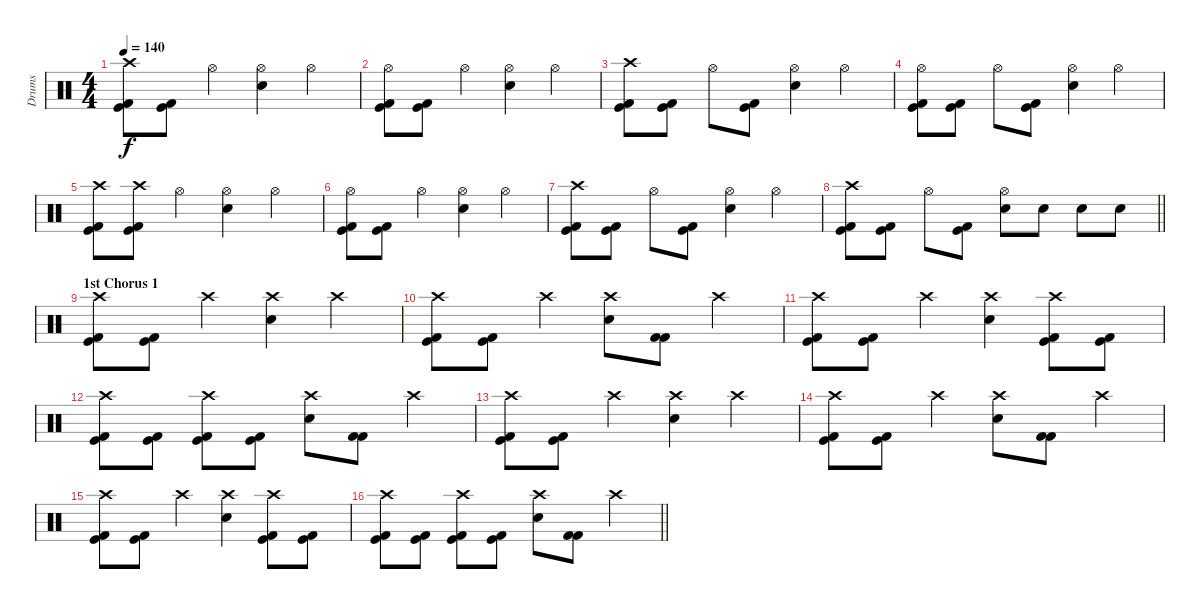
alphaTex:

\track ("Drums" "Drums") {instrument percussion}
\staff {score}
\articulation defaults
\ts (4 4)
\tempo 140
\clef neutral
\ks c
("Kick (hit)" "Kick (hit) 2" "Crash high (hit)").8{dy f} ("Kick (hit) 2" "Kick (hit)").8 "Hi-Hat (open)".4 ("Snare (hit) 2" "Hi-Hat (open)").4 "Hi-Hat (open)".4 |
("Kick (hit)" "Kick (hit) 2" "Hi-Hat (open)").8 ("Kick (hit) 2" "Kick (hit)").8 "Hi-Hat (open)".4 ("Snare (hit) 2" "Hi-Hat (open)").4 "Hi-Hat (open)".4 |
("Kick (hit)" "Kick (hit) 2" "Crash high (hit)").8 ("Kick (hit)" "Kick (hit) 2").8 "Hi-Hat (open)".8 ("Kick (hit)" "Kick (hit) 2").8 ("Snare (hit) 2" "Hi-Hat (open)").4 "Hi-Hat (open)".4 |
("Kick (hit)" "Kick (hit) 2" "Hi-Hat (open)").8 ("Kick (hit)" "Kick (hit) 2").8 "Hi-Hat (open)".8 ("Kick (hit)" "Kick (hit) 2").8 ("Snare (hit) 2" "Hi-Hat (open)").4 "Hi-Hat (open)".4 |
("Kick (hit)" "Kick (hit) 2" "Crash high (hit)").8 ("Kick (hit) 2" "Kick (hit)" "Crash high (hit)").8 "Hi-Hat (open)".4 ("Snare (hit) 2" "Hi-Hat (open)").4 "Hi-Hat (open)".4 |
("Kick (hit)" "Kick (hit) 2" "Hi-Hat (open)").8 ("Kick (hit) 2" "Kick (hit)").8 "Hi-Hat (open)".4 ("Snare (hit) 2" "Hi-Hat (open)").4 "Hi-Hat (open)".4 |
("Kick (hit)" "Kick (hit) 2" "Crash high (hit)").8 ("Kick (hit)" "Kick (hit) 2").8 "Hi-Hat (open)".8 ("Kick (hit)" "Kick (hit) 2").8 ("Snare (hit) 2" "Hi-Hat (open)").4 "Hi-Hat (open)".4 |
\barLineRight lightlight
("Kick (hit)" "Kick (hit) 2" "Crash high (hit)").8 ("Kick (hit)" "Kick (hit) 2").8 "Hi-Hat (open)".8 ("Kick (hit)" "Kick (hit) 2").8 ("Snare (hit) 2" "Hi-Hat (open)").8 "Snare (hit) 2".8 "Snare (hit) 2".8 "Snare (hit) 2".8 |
\section ("" "1st Chorus 1")
("Kick (hit)" "Kick (hit) 2" "Crash high (hit)").8 ("Kick (hit) 2" "Kick (hit)").8 "Crash high (hit)".4 ("Snare (hit) 2" "Crash high (hit)").4 "Crash high (hit)".4 |
("Kick (hit)" "Kick (hit) 2" "Crash high (hit)").8 ("Kick (hit) 2" "Kick (hit)").8 "Crash high (hit)".4 ("Snare (hit) 2" "Crash high (hit)").8 ("Kick (hit) 2" "Kick (hit) 2").8 "Crash high (hit)".4 |
("Kick (hit)" "Kick (hit) 2" "Crash high (hit)").8 ("Kick (hit) 2" "Kick (hit)").8 "Crash high (hit)".4 ("Snare (hit) 2" "Crash high (hit)").4 ("Crash high (hit)" "Kick (hit)" "Kick (hit) 2").8 ("Kick (hit)" "Kick (hit) 2").8 |
("Kick (hit)" "Kick (hit) 2" "Crash high (hit)").8 ("Kick (hit) 2" "Kick (hit)").8 ("Crash high (hit)" "Kick (hit) 2" "Kick (hit)").8 ("Kick (hit)" "Kick (hit) 2").8 ("Snare (hit) 2" "Crash high (hit)").8 ("Kick (hit) 2" "Kick (hit) 2").8 "Crash high (hit)".4 |
("Kick (hit)" "Kick (hit) 2" "Crash high (hit)").8 ("Kick (hit) 2" "Kick (hit)").8 "Crash high (hit)".4 ("Snare (hit) 2" "Crash high (hit)").4 "Crash high (hit)".4 |
("Kick (hit)" "Kick (hit) 2" "Crash high (hit)").8 ("Kick (hit) 2" "Kick (hit)").8 "Crash high (hit)".4 ("Snare (hit) 2" "Crash high (hit)").8 ("Kick (hit) 2" "Kick (hit) 2").8 "Crash high (hit)".4 |
("Kick (hit)" "Kick (hit) 2" "Crash high (hit)").8 ("Kick (hit) 2" "Kick (hit)").8 "Crash high (hit)".4 ("Snare (hit) 2" "Crash high (hit)").4 ("Crash high (hit)" "Kick (hit)" "Kick (hit) 2").8 ("Kick (hit)" "Kick (hit) 2").8 |
\barLineRight lightlight
("Kick (hit)" "Kick (hit) 2" "Crash high (hit)").8 ("Kick (hit) 2" "Kick (hit)").8 ("Crash high (hit)" "Kick (hit) 2" "Kick (hit)").8 ("Kick (hit)" "Kick (hit) 2").8 ("Snare (hit) 2" "Crash high (hit)").8 ("Kick (hit) 2" "Kick (hit) 2").8 "Crash high (hit)".4
